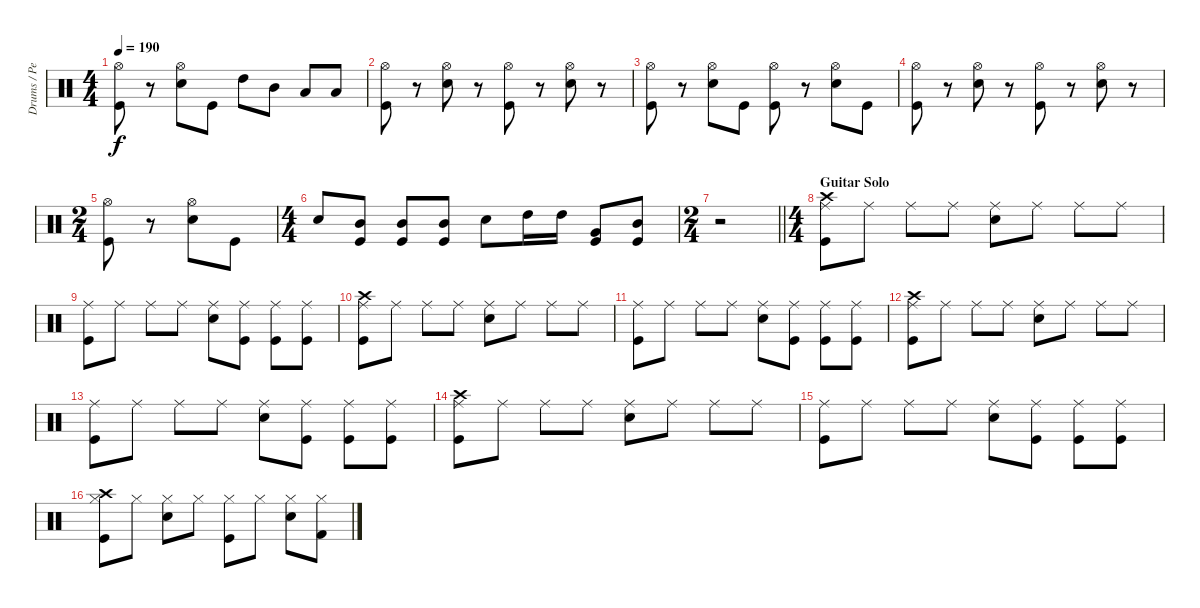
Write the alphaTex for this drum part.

\track ("Drums / Percussion" "Drums / Pe") {instrument percussion}
\staff {score}
\articulation defaults
\ts (4 4)
\tempo 190
\clef neutral
\ks c
("Hi-Hat (open)" "Kick (hit)").8{dy f} r.8 ("Hi-Hat (open)" "Electric Snare (hit)").8 "Kick (hit)".8 "High Tom (hit)".8 "Mid Tom (hit)".8 "Low Tom (hit)".8 "Low Tom (hit)".8 |
("Hi-Hat (open)" "Kick (hit)").8 r.8 ("Hi-Hat (open)" "Electric Snare (hit)").8 r.8 ("Hi-Hat (open)" "Kick (hit)").8 r.8 ("Hi-Hat (open)" "Electric Snare (hit)").8 r.8 |
("Hi-Hat (open)" "Kick (hit)").8 r.8 ("Hi-Hat (open)" "Electric Snare (hit)").8 "Kick (hit)".8 ("Hi-Hat (open)" "Kick (hit)").8 r.8 ("Hi-Hat (open)" "Electric Snare (hit)").8 "Kick (hit)".8 |
("Hi-Hat (open)" "Kick (hit)").8 r.8 ("Hi-Hat (open)" "Electric Snare (hit)").8 r.8 ("Hi-Hat (open)" "Kick (hit)").8 r.8 ("Hi-Hat (open)" "Electric Snare (hit)").8 r.8 |
\ts (2 4)
("Hi-Hat (open)" "Kick (hit)").8 r.8 ("Hi-Hat (open)" "Electric Snare (hit)").8 "Kick (hit)".8 |
\ts (4 4)
"Electric Snare (hit)".8 ("Mid Tom (hit)" "Kick (hit)").8 ("Mid Tom (hit)" "Kick (hit)").8 ("Mid Tom (hit)" "Kick (hit)").8 "Electric Snare (hit)".8 "High Tom (hit)".16 "High Tom (hit)".16 ("Very Low Tom (hit)" "Kick (hit)").8 ("Mid Tom (hit)" "Kick (hit)").8 |
\ts (2 4)
\barLineRight lightlight
r.2 |
\ts (4 4)
\section ("" "Guitar Solo")
("Ride (middle)" "Crash high (hit)" "Kick (hit)").8 "Ride (middle)".8 "Ride (middle)".8 "Ride (middle)".8 ("Ride (middle)" "Electric Snare (hit)").8 "Ride (middle)".8 "Ride (middle)".8 "Ride (middle)".8 |
("Ride (middle)" "Kick (hit)").8 "Ride (middle)".8 "Ride (middle)".8 "Ride (middle)".8 ("Ride (middle)" "Electric Snare (hit)").8 ("Ride (middle)" "Kick (hit)").8 ("Ride (middle)" "Kick (hit)").8 ("Ride (middle)" "Kick (hit)").8 |
("Ride (middle)" "Crash high (hit)" "Kick (hit)").8 "Ride (middle)".8 "Ride (middle)".8 "Ride (middle)".8 ("Ride (middle)" "Electric Snare (hit)").8 "Ride (middle)".8 "Ride (middle)".8 "Ride (middle)".8 |
("Ride (middle)" "Kick (hit)").8 "Ride (middle)".8 "Ride (middle)".8 "Ride (middle)".8 ("Ride (middle)" "Electric Snare (hit)").8 ("Ride (middle)" "Kick (hit)").8 ("Ride (middle)" "Kick (hit)").8 ("Ride (middle)" "Kick (hit)").8 |
("Ride (middle)" "Crash high (hit)" "Kick (hit)").8 "Ride (middle)".8 "Ride (middle)".8 "Ride (middle)".8 ("Ride (middle)" "Electric Snare (hit)").8 "Ride (middle)".8 "Ride (middle)".8 "Ride (middle)".8 |
("Ride (middle)" "Kick (hit)").8 "Ride (middle)".8 "Ride (middle)".8 "Ride (middle)".8 ("Ride (middle)" "Electric Snare (hit)").8 ("Ride (middle)" "Kick (hit)").8 ("Ride (middle)" "Kick (hit)").8 ("Ride (middle)" "Kick (hit)").8 |
("Ride (middle)" "Crash high (hit)" "Kick (hit)").8 "Ride (middle)".8 "Ride (middle)".8 "Ride (middle)".8 ("Ride (middle)" "Electric Snare (hit)").8 "Ride (middle)".8 "Ride (middle)".8 "Ride (middle)".8 |
("Ride (middle)" "Kick (hit)").8 "Ride (middle)".8 "Ride (middle)".8 "Ride (middle)".8 ("Ride (middle)" "Electric Snare (hit)").8 ("Ride (middle)" "Kick (hit)").8 ("Ride (middle)" "Kick (hit)").8 ("Ride (middle)" "Kick (hit)").8 |
("Hi-Hat (closed)" "Crash high (hit)" "Kick (hit)").8 "Hi-Hat (closed)".8 ("Hi-Hat (closed)" "Electric Snare (hit)").8 "Hi-Hat (closed)".8 ("Hi-Hat (closed)" "Kick (hit)").8 "Hi-Hat (closed)".8 ("Hi-Hat (closed)" "Electric Snare (hit)").8 ("Hi-Hat (closed)" "Kick (hit) 2").8
